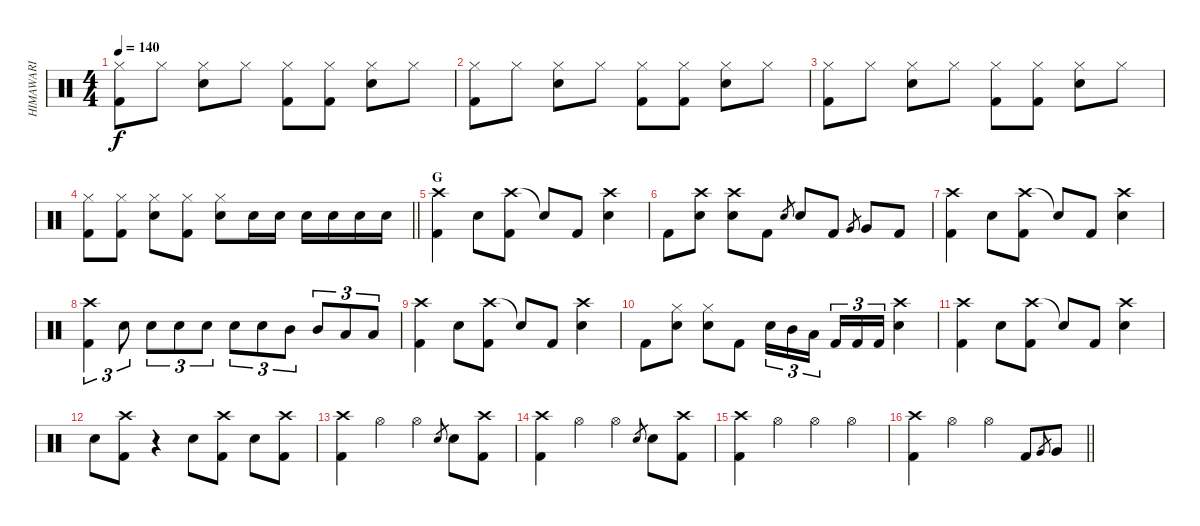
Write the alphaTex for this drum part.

\track ("HIMAWARI" "HIMAWARI") {instrument percussion}
\staff {score}
\articulation defaults
\ts (4 4)
\tempo 140
\clef neutral
\ks c
("Hi-Hat (closed)" "Kick (hit) 2").8{dy f} "Hi-Hat (closed)".8 ("Hi-Hat (closed)" "Snare (hit) 2").8 "Hi-Hat (closed)".8 ("Hi-Hat (closed)" "Kick (hit) 2").8 ("Hi-Hat (closed)" "Kick (hit) 2").8 ("Hi-Hat (closed)" "Snare (hit) 2").8 "Hi-Hat (closed)".8 |
("Hi-Hat (closed)" "Kick (hit) 2").8 "Hi-Hat (closed)".8 ("Hi-Hat (closed)" "Snare (hit) 2").8 "Hi-Hat (closed)".8 ("Hi-Hat (closed)" "Kick (hit) 2").8 ("Hi-Hat (closed)" "Kick (hit) 2").8 ("Hi-Hat (closed)" "Snare (hit) 2").8 "Hi-Hat (closed)".8 |
("Hi-Hat (closed)" "Kick (hit) 2").8 "Hi-Hat (closed)".8 ("Hi-Hat (closed)" "Snare (hit) 2").8 "Hi-Hat (closed)".8 ("Hi-Hat (closed)" "Kick (hit) 2").8 ("Hi-Hat (closed)" "Kick (hit) 2").8 ("Hi-Hat (closed)" "Snare (hit) 2").8 "Hi-Hat (closed)".8 |
\barLineRight lightlight
("Hi-Hat (closed)" "Kick (hit) 2").8 ("Hi-Hat (closed)" "Kick (hit) 2").8 ("Hi-Hat (closed)" "Snare (hit) 2").8 ("Hi-Hat (closed)" "Kick (hit) 2").8 ("Hi-Hat (closed)" "Snare (hit) 2").8 "Snare (hit) 2".16 "Snare (hit) 2".16 "Snare (hit) 2".16 "Snare (hit) 2".16 "Snare (hit) 2".16 "Snare (hit) 2".16 |
\section ("" "G")
("Crash high (hit)" "Kick (hit) 2").4 "Snare (hit) 2".8 ("Crash high (hit)" "Kick (hit) 2").8 "Snare (hit)"{t}.8 "Kick (hit) 2".8 ("Crash high (hit)" "Snare (hit) 2").4 |
"Kick (hit) 2".8 ("Crash high (hit)" "Snare (hit) 2").8 ("Crash high (hit)" "Snare (hit) 2").8 "Kick (hit) 2".8 "Snare (hit) 2".8{gr} "Snare (hit) 2".8 "Kick (hit) 2".8 "Very Low Tom (hit)".8{gr} "Very Low Tom (hit)".8 "Kick (hit) 2".8 |
("Crash high (hit)" "Kick (hit) 2").4 "Snare (hit) 2".8 ("Crash high (hit)" "Kick (hit) 2").8 "Snare (hit)"{t}.8 "Kick (hit) 2".8 ("Crash high (hit)" "Snare (hit) 2").4 |
("Crash high (hit)" "Kick (hit) 2").4{tu (3 2)} "Snare (hit) 2".8{tu (3 2)} "Snare (hit) 2".8{tu (3 2)} "Snare (hit) 2".8{tu (3 2)} "Snare (hit) 2".8{tu (3 2)} "Snare (hit) 2".8{tu (3 2)} "Snare (hit) 2".8{tu (3 2)} "Mid Tom (hit)".8{tu (3 2)} "Mid Tom (hit)".8{tu (3 2)} "Low Tom (hit)".8{tu (3 2)} "Low Tom (hit)".8{tu (3 2)} |
("Crash high (hit)" "Kick (hit) 2").4 "Snare (hit) 2".8 ("Crash high (hit)" "Kick (hit) 2").8 "Snare (hit)"{t}.8 "Kick (hit) 2".8 ("Crash high (hit)" "Snare (hit) 2").4 |
"Kick (hit) 2".8 ("Hi-Hat (closed)" "Snare (hit) 2").8 ("Hi-Hat (closed)" "Snare (hit) 2").8 "Kick (hit) 2".8 "Snare (hit) 2".16{tu (3 2)} "Mid Tom (hit)".16{tu (3 2)} "Low Tom (hit)".16{tu (3 2)} "Kick (hit) 2".16{tu (3 2)} "Kick (hit) 2".16{tu (3 2)} "Kick (hit) 2".16{tu (3 2)} ("Crash high (hit)" "Snare (hit) 2").4 |
("Crash high (hit)" "Kick (hit) 2").4 "Snare (hit) 2".8 ("Crash high (hit)" "Kick (hit) 2").8 "Snare (hit)"{t}.8 "Kick (hit) 2".8 ("Crash high (hit)" "Snare (hit) 2").4 |
"Snare (hit) 2".8 ("Crash high (hit)" "Kick (hit) 2").8 r.4 "Snare (hit) 2".8 ("Crash high (hit)" "Kick (hit) 2").8 "Snare (hit) 2".8 ("Crash high (hit)" "Kick (hit) 2").8 |
("Crash high (hit)" "Kick (hit) 2").4 "Hi-Hat (open)".4 "Hi-Hat (open)".4 "Snare (hit) 2".8{gr} "Snare (hit) 2".8 ("Crash high (hit)" "Kick (hit) 2").8 |
("Crash high (hit)" "Kick (hit) 2").4 "Hi-Hat (open)".4 "Hi-Hat (open)".4 "Snare (hit) 2".8{gr} "Snare (hit) 2".8 ("Crash high (hit)" "Kick (hit) 2").8 |
("Crash high (hit)" "Kick (hit) 2").4 "Hi-Hat (open)".4 "Hi-Hat (open)".4 "Hi-Hat (open)".4 |
\barLineRight lightlight
("Crash high (hit)" "Kick (hit) 2").4 "Hi-Hat (open)".4 "Hi-Hat (open)".4 "Kick (hit) 2".8 "Very Low Tom (hit)".8{gr} "Very Low Tom (hit)".8
